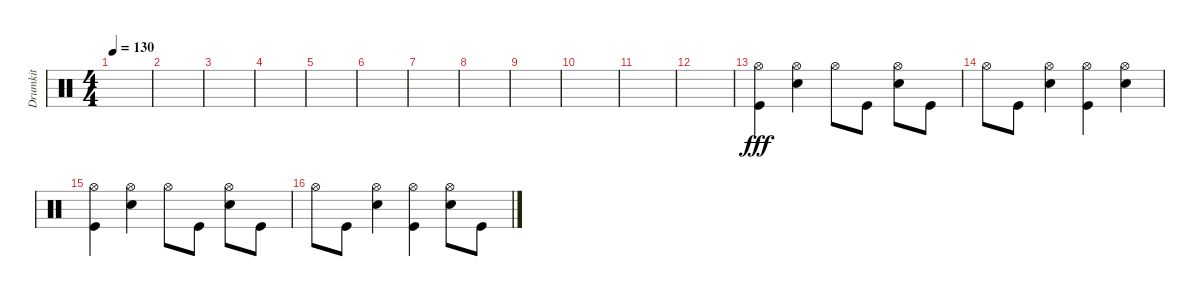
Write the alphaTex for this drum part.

\track ("Drumkit" "Drumkit") {instrument percussion}
\staff {score}
\articulation defaults
\ts (4 4)
\tempo 130
\clef neutral
\ks c
|
|
|
|
|
|
|
|
|
|
|
|
("Kick (hit)" "Hi-Hat (open)").4{dy fff} ("Snare (hit) 2" "Hi-Hat (open)").4 "Hi-Hat (open)".8 "Kick (hit)".8 ("Hi-Hat (open)" "Snare (hit) 2").8 "Kick (hit)".8 |
"Hi-Hat (open)".8 "Kick (hit)".8 ("Snare (hit) 2" "Hi-Hat (open)").4 ("Hi-Hat (open)" "Kick (hit)").4 ("Hi-Hat (open)" "Snare (hit) 2").4 |
("Kick (hit)" "Hi-Hat (open)").4 ("Snare (hit) 2" "Hi-Hat (open)").4 "Hi-Hat (open)".8 "Kick (hit)".8 ("Hi-Hat (open)" "Snare (hit) 2").8 "Kick (hit)".8 |
"Hi-Hat (open)".8 "Kick (hit)".8 ("Snare (hit) 2" "Hi-Hat (open)").4 ("Hi-Hat (open)" "Kick (hit)").4 ("Hi-Hat (open)" "Snare (hit) 2").8 "Kick (hit)".8
